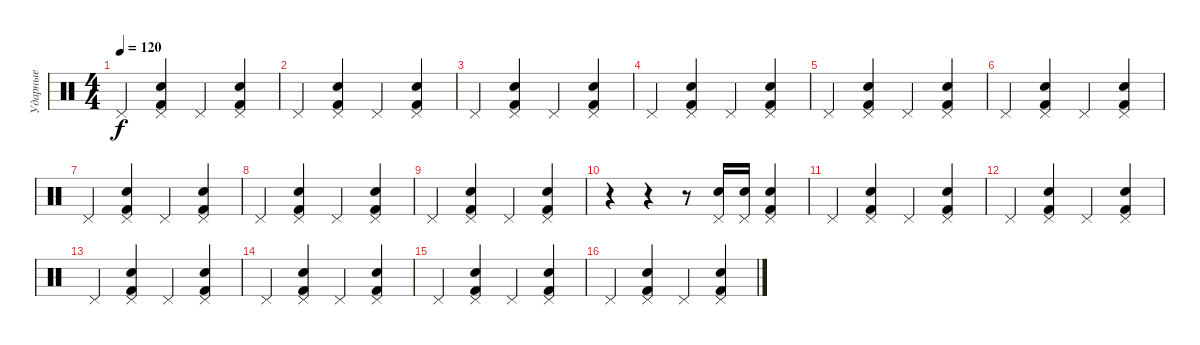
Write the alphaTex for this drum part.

\track ("Ударные" "Ударные") {instrument percussion}
\staff {score}
\articulation defaults
\ts (4 4)
\tempo 120
\clef neutral
\ks c "Pedal Hi-Hat (hit)".4{dy f}
("Electric Snare (hit)" "Pedal Hi-Hat (hit)" "Kick (hit) 2").4 "Pedal Hi-Hat (hit)".4 ("Electric Snare (hit)" "Pedal Hi-Hat (hit)" "Kick (hit) 2").4 |
"Pedal Hi-Hat (hit)".4 ("Electric Snare (hit)" "Pedal Hi-Hat (hit)" "Kick (hit) 2").4 "Pedal Hi-Hat (hit)".4 ("Electric Snare (hit)" "Pedal Hi-Hat (hit)" "Kick (hit) 2").4 |
"Pedal Hi-Hat (hit)".4 ("Electric Snare (hit)" "Pedal Hi-Hat (hit)" "Kick (hit) 2").4 "Pedal Hi-Hat (hit)".4 ("Electric Snare (hit)" "Pedal Hi-Hat (hit)" "Kick (hit) 2").4 |
"Pedal Hi-Hat (hit)".4 ("Electric Snare (hit)" "Pedal Hi-Hat (hit)" "Kick (hit) 2").4 "Pedal Hi-Hat (hit)".4 ("Electric Snare (hit)" "Pedal Hi-Hat (hit)" "Kick (hit) 2").4 |
"Pedal Hi-Hat (hit)".4 ("Electric Snare (hit)" "Pedal Hi-Hat (hit)" "Kick (hit) 2").4 "Pedal Hi-Hat (hit)".4 ("Electric Snare (hit)" "Pedal Hi-Hat (hit)" "Kick (hit) 2").4 |
"Pedal Hi-Hat (hit)".4 ("Electric Snare (hit)" "Pedal Hi-Hat (hit)" "Kick (hit) 2").4 "Pedal Hi-Hat (hit)".4 ("Electric Snare (hit)" "Pedal Hi-Hat (hit)" "Kick (hit) 2").4 |
"Pedal Hi-Hat (hit)".4 ("Electric Snare (hit)" "Pedal Hi-Hat (hit)" "Kick (hit) 2").4 "Pedal Hi-Hat (hit)".4 ("Electric Snare (hit)" "Pedal Hi-Hat (hit)" "Kick (hit) 2").4 |
"Pedal Hi-Hat (hit)".4 ("Electric Snare (hit)" "Pedal Hi-Hat (hit)" "Kick (hit) 2").4 "Pedal Hi-Hat (hit)".4 ("Electric Snare (hit)" "Pedal Hi-Hat (hit)" "Kick (hit) 2").4 |
"Pedal Hi-Hat (hit)".4 ("Electric Snare (hit)" "Pedal Hi-Hat (hit)" "Kick (hit) 2").4 "Pedal Hi-Hat (hit)".4 ("Electric Snare (hit)" "Pedal Hi-Hat (hit)" "Kick (hit) 2").4 |
r.4 r.4 r.8 ("Electric Snare (hit)" "Pedal Hi-Hat (hit)").16 ("Electric Snare (hit)" "Pedal Hi-Hat (hit)").16 ("Electric Snare (hit)" "Pedal Hi-Hat (hit)" "Kick (hit) 2").4 |
"Pedal Hi-Hat (hit)".4 ("Electric Snare (hit)" "Pedal Hi-Hat (hit)" "Kick (hit) 2").4 "Pedal Hi-Hat (hit)".4 ("Electric Snare (hit)" "Pedal Hi-Hat (hit)" "Kick (hit) 2").4 |
"Pedal Hi-Hat (hit)".4 ("Electric Snare (hit)" "Pedal Hi-Hat (hit)" "Kick (hit) 2").4 "Pedal Hi-Hat (hit)".4 ("Electric Snare (hit)" "Pedal Hi-Hat (hit)" "Kick (hit) 2").4 |
"Pedal Hi-Hat (hit)".4 ("Electric Snare (hit)" "Pedal Hi-Hat (hit)" "Kick (hit) 2").4 "Pedal Hi-Hat (hit)".4 ("Electric Snare (hit)" "Pedal Hi-Hat (hit)" "Kick (hit) 2").4 |
"Pedal Hi-Hat (hit)".4 ("Electric Snare (hit)" "Pedal Hi-Hat (hit)" "Kick (hit) 2").4 "Pedal Hi-Hat (hit)".4 ("Electric Snare (hit)" "Pedal Hi-Hat (hit)" "Kick (hit) 2").4 |
"Pedal Hi-Hat (hit)".4 ("Electric Snare (hit)" "Pedal Hi-Hat (hit)" "Kick (hit) 2").4 "Pedal Hi-Hat (hit)".4 ("Electric Snare (hit)" "Pedal Hi-Hat (hit)" "Kick (hit) 2").4 |
"Pedal Hi-Hat (hit)".4 ("Electric Snare (hit)" "Pedal Hi-Hat (hit)" "Kick (hit) 2").4 "Pedal Hi-Hat (hit)".4 ("Electric Snare (hit)" "Pedal Hi-Hat (hit)" "Kick (hit) 2").4
